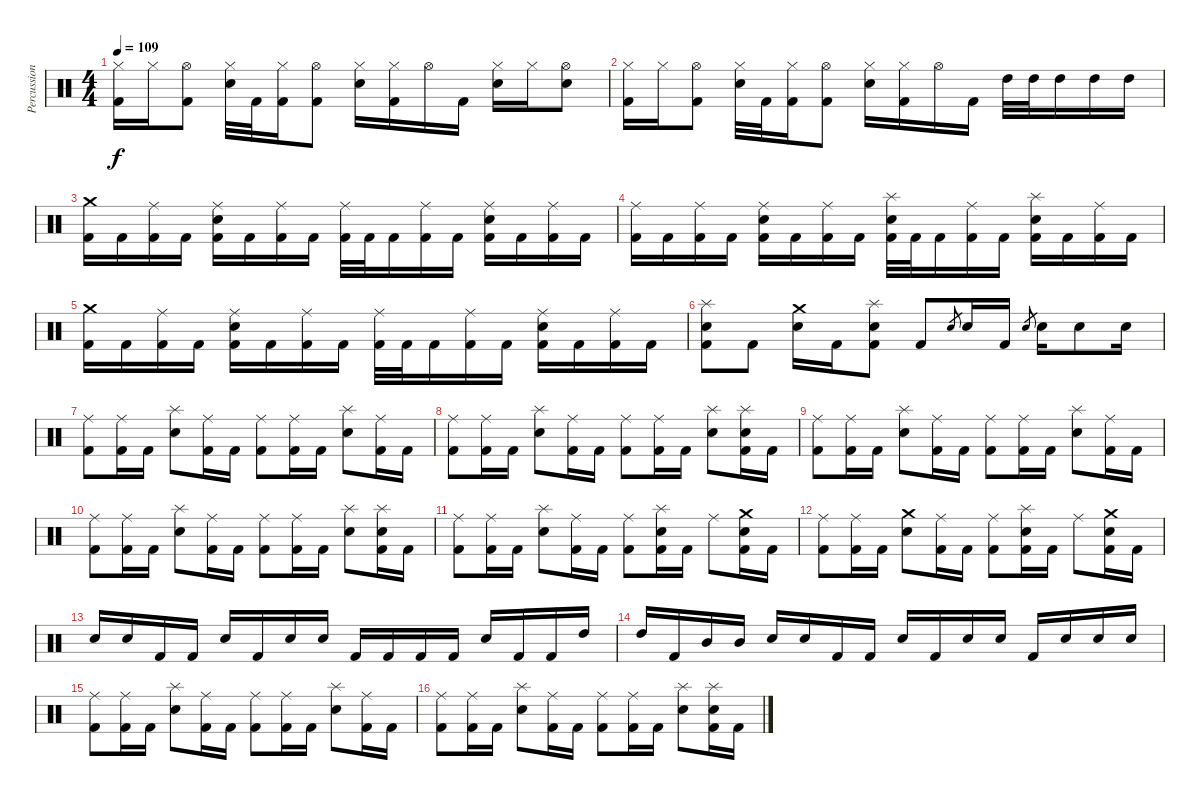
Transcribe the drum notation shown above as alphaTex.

\track ("Percussions" "Percussion") {instrument percussion}
\staff {score}
\articulation defaults
\ts (4 4)
\tempo 109
\clef neutral
\ks c
("Hi-Hat (closed)" "Kick (hit) 2").16{dy f} "Hi-Hat (closed)".16 ("Hi-Hat (open)" "Kick (hit) 2").8 ("Hi-Hat (closed)" "Electric Snare (hit)").32 "Kick (hit) 2".32 ("Hi-Hat (closed)" "Kick (hit) 2").16 ("Hi-Hat (open)" "Kick (hit) 2").8 ("Hi-Hat (closed)" "Electric Snare (hit)").16 ("Hi-Hat (closed)" "Kick (hit) 2").16 "Hi-Hat (open)".16 "Kick (hit) 2".16 ("Hi-Hat (closed)" "Electric Snare (hit)").16 "Hi-Hat (closed)".16 ("Hi-Hat (open)" "Electric Snare (hit)").8 |
("Hi-Hat (closed)" "Kick (hit) 2").16 "Hi-Hat (closed)".16 ("Hi-Hat (open)" "Kick (hit) 2").8 ("Hi-Hat (closed)" "Electric Snare (hit)").32 "Kick (hit) 2".32 ("Hi-Hat (closed)" "Kick (hit) 2").16 ("Hi-Hat (open)" "Kick (hit) 2").8 ("Hi-Hat (closed)" "Electric Snare (hit)").16 ("Hi-Hat (closed)" "Kick (hit) 2").16 "Hi-Hat (open)".16 "Kick (hit) 2".16 "High Tom (hit)".32 "High Tom (hit)".32 "High Tom (hit)".16 "High Tom (hit)".16 "High Tom (hit)".16 |
("Crash medium (hit)" "Kick (hit) 2").16 "Kick (hit) 2".16 ("Ride (middle)" "Kick (hit) 2").16 "Kick (hit) 2".16 ("Ride (middle)" "Electric Snare (hit)" "Kick (hit) 2").16 "Kick (hit) 2".16 ("Ride (middle)" "Kick (hit) 2").16 "Kick (hit) 2".16 ("Ride (middle)" "Kick (hit) 2").32 "Kick (hit) 2".32 "Kick (hit) 2".16 ("Ride (middle)" "Kick (hit) 2").16 "Kick (hit) 2".16 ("Ride (middle)" "Electric Snare (hit)" "Kick (hit) 2").16 "Kick (hit) 2".16 ("Ride (middle)" "Kick (hit) 2").16 "Kick (hit) 2".16 |
("Ride (middle)" "Kick (hit) 2").16 "Kick (hit) 2".16 ("Ride (middle)" "Kick (hit) 2").16 "Kick (hit) 2".16 ("Ride (middle)" "Electric Snare (hit)" "Kick (hit) 2").16 "Kick (hit) 2".16 ("Ride (middle)" "Kick (hit) 2").16 "Kick (hit) 2".16 ("Splash (hit)" "Electric Snare (hit)" "Kick (hit) 2").32 "Kick (hit) 2".32 "Kick (hit) 2".16 ("Ride (middle)" "Kick (hit) 2").16 "Kick (hit) 2".16 ("Splash (hit)" "Electric Snare (hit)" "Kick (hit) 2").16 "Kick (hit) 2".16 ("Ride (middle)" "Kick (hit) 2").16 "Kick (hit) 2".16 |
("Crash medium (hit)" "Kick (hit) 2").16 "Kick (hit) 2".16 ("Ride (middle)" "Kick (hit) 2").16 "Kick (hit) 2".16 ("Ride (middle)" "Electric Snare (hit)" "Kick (hit) 2").16 "Kick (hit) 2".16 ("Ride (middle)" "Kick (hit) 2").16 "Kick (hit) 2".16 ("Ride (middle)" "Kick (hit) 2").32 "Kick (hit) 2".32 "Kick (hit) 2".16 ("Ride (middle)" "Kick (hit) 2").16 "Kick (hit) 2".16 ("Ride (middle)" "Electric Snare (hit)" "Kick (hit) 2").16 "Kick (hit) 2".16 ("Ride (middle)" "Kick (hit) 2").16 "Kick (hit) 2".16 |
("Splash (hit)" "Electric Snare (hit)" "Kick (hit) 2").8 "Kick (hit) 2".8 ("Crash medium (hit)" "Electric Snare (hit)").16 "Kick (hit) 2".16 ("Splash (hit)" "Electric Snare (hit)" "Kick (hit) 2").8 "Kick (hit) 2".8 "Electric Snare (hit)".8{gr} "Electric Snare (hit)".16 "Kick (hit) 2".16 "Electric Snare (hit)".8{gr} "Electric Snare (hit)".16 "Electric Snare (hit)".8 "Electric Snare (hit)".16 |
("Ride (middle)" "Kick (hit) 2").8 ("Ride (middle)" "Kick (hit) 2").16 "Kick (hit) 2".16 ("Splash (hit)" "Electric Snare (hit)").8 ("Ride (middle)" "Kick (hit) 2").16 "Kick (hit) 2".16 ("Ride (middle)" "Kick (hit) 2").8 ("Ride (middle)" "Kick (hit) 2").16 "Kick (hit) 2".16 ("Splash (hit)" "Electric Snare (hit)").8 ("Ride (middle)" "Kick (hit) 2").16 "Kick (hit) 2".16 |
("Ride (middle)" "Kick (hit) 2").8 ("Ride (middle)" "Kick (hit) 2").16 "Kick (hit) 2".16 ("Splash (hit)" "Electric Snare (hit)").8 ("Ride (middle)" "Kick (hit) 2").16 "Kick (hit) 2".16 ("Ride (middle)" "Kick (hit) 2").8 ("Ride (middle)" "Kick (hit) 2").16 "Kick (hit) 2".16 ("Splash (hit)" "Electric Snare (hit)").8 ("Splash (hit)" "Electric Snare (hit)" "Kick (hit) 2").16 "Kick (hit) 2".16 |
("Ride (middle)" "Kick (hit) 2").8 ("Ride (middle)" "Kick (hit) 2").16 "Kick (hit) 2".16 ("Splash (hit)" "Electric Snare (hit)").8 ("Ride (middle)" "Kick (hit) 2").16 "Kick (hit) 2".16 ("Ride (middle)" "Kick (hit) 2").8 ("Ride (middle)" "Kick (hit) 2").16 "Kick (hit) 2".16 ("Splash (hit)" "Electric Snare (hit)").8 ("Ride (middle)" "Kick (hit) 2").16 "Kick (hit) 2".16 |
("Ride (middle)" "Kick (hit) 2").8 ("Ride (middle)" "Kick (hit) 2").16 "Kick (hit) 2".16 ("Splash (hit)" "Electric Snare (hit)").8 ("Ride (middle)" "Kick (hit) 2").16 "Kick (hit) 2".16 ("Ride (middle)" "Kick (hit) 2").8 ("Ride (middle)" "Kick (hit) 2").16 "Kick (hit) 2".16 ("Splash (hit)" "Electric Snare (hit)").8 ("Splash (hit)" "Electric Snare (hit)" "Kick (hit) 2").16 "Kick (hit) 2".16 |
("Ride (middle)" "Kick (hit) 2").8 ("Ride (middle)" "Kick (hit) 2").16 "Kick (hit) 2".16 ("Splash (hit)" "Electric Snare (hit)").8 ("Ride (middle)" "Kick (hit) 2").16 "Kick (hit) 2".16 ("Ride (middle)" "Kick (hit) 2").8 ("Splash (hit)" "Electric Snare (hit)" "Kick (hit) 2").16 "Kick (hit) 2".16 "Ride (middle)".8 ("Crash medium (hit)" "Electric Snare (hit)" "Kick (hit) 2").16 "Kick (hit) 2".16 |
("Ride (middle)" "Kick (hit) 2").8 ("Ride (middle)" "Kick (hit) 2").16 "Kick (hit) 2".16 ("Crash medium (hit)" "Electric Snare (hit)").8 ("Ride (middle)" "Kick (hit) 2").16 "Kick (hit) 2".16 ("Ride (middle)" "Kick (hit) 2").8 ("Splash (hit)" "Electric Snare (hit)" "Kick (hit) 2").16 "Kick (hit) 2".16 "Ride (middle)".8 ("Crash medium (hit)" "Electric Snare (hit)" "Kick (hit) 2").16 "Kick (hit) 2".16 |
"Electric Snare (hit)".16 "Electric Snare (hit)".16 "Kick (hit) 2".16 "Kick (hit) 2".16 "Electric Snare (hit)".16 "Kick (hit) 2".16 "Electric Snare (hit)".16 "Electric Snare (hit)".16 "Kick (hit) 2".16 "Kick (hit) 2".16 "Kick (hit) 2".16 "Kick (hit) 2".16 "Electric Snare (hit)".16 "Kick (hit) 2".16 "Kick (hit) 2".16 "High Tom (hit)".16 |
"High Tom (hit)".16 "Kick (hit) 2".16 "Mid Tom (hit)".16 "Mid Tom (hit)".16 "Electric Snare (hit)".16 "Electric Snare (hit)".16 "Kick (hit) 2".16 "Kick (hit) 2".16 "Electric Snare (hit)".16 "Kick (hit) 2".16 "Electric Snare (hit)".16 "Electric Snare (hit)".16 "Kick (hit) 2".16 "Electric Snare (hit)".16 "Electric Snare (hit)".16 "Electric Snare (hit)".16 |
("Ride (middle)" "Kick (hit) 2").8 ("Ride (middle)" "Kick (hit) 2").16 "Kick (hit) 2".16 ("Splash (hit)" "Electric Snare (hit)").8 ("Ride (middle)" "Kick (hit) 2").16 "Kick (hit) 2".16 ("Ride (middle)" "Kick (hit) 2").8 ("Ride (middle)" "Kick (hit) 2").16 "Kick (hit) 2".16 ("Splash (hit)" "Electric Snare (hit)").8 ("Ride (middle)" "Kick (hit) 2").16 "Kick (hit) 2".16 |
("Ride (middle)" "Kick (hit) 2").8 ("Ride (middle)" "Kick (hit) 2").16 "Kick (hit) 2".16 ("Splash (hit)" "Electric Snare (hit)").8 ("Ride (middle)" "Kick (hit) 2").16 "Kick (hit) 2".16 ("Ride (middle)" "Kick (hit) 2").8 ("Ride (middle)" "Kick (hit) 2").16 "Kick (hit) 2".16 ("Splash (hit)" "Electric Snare (hit)").8 ("Splash (hit)" "Electric Snare (hit)" "Kick (hit) 2").16 "Kick (hit) 2".16
